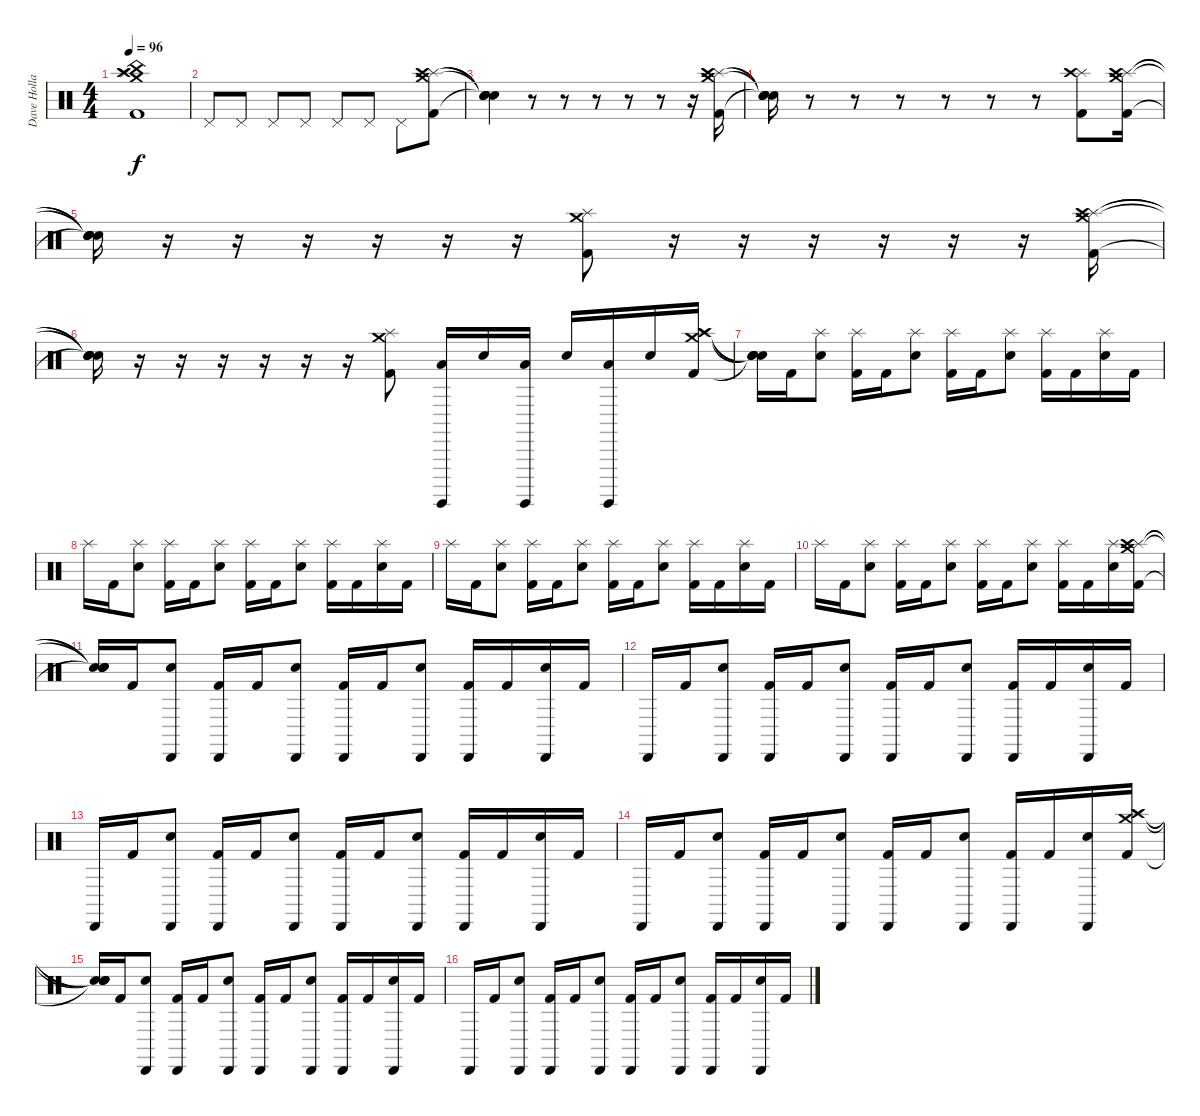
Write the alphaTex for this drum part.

\track ("Dave Holland" "Dave Holla") {instrument percussion}
\staff {score}
\articulation defaults
\ts (4 4)
\tempo 96
\clef neutral
\ks c
("Crash medium (hit)" "Splash (hit)" "Crash high (hit)" "China (hit)" "Kick (hit) 2").1{dy f} |
"Pedal Hi-Hat (hit)".8 "Pedal Hi-Hat (hit)".8 "Pedal Hi-Hat (hit)".8 "Pedal Hi-Hat (hit)".8 "Pedal Hi-Hat (hit)".8 "Pedal Hi-Hat (hit)".8 "Pedal Hi-Hat (hit)".8 ("Crash medium (hit)" "Splash (hit)" "Crash high (hit)" "Kick (hit) 2").8 |
("Snare (hit)"{t} "Snare (hit)"{t} "Snare (hit)"{t} "Snare (hit)"{t}).4 r.8 r.8 r.8 r.8 r.8 r.16 ("Crash medium (hit)" "Splash (hit)" "Crash high (hit)" "Kick (hit) 2").16 |
("Snare (hit)"{t} "Snare (hit)"{t} "Snare (hit)"{t} "Snare (hit)"{t}).16 r.8 r.8 r.8 r.8 r.8 r.8 ("Splash (hit)" "Crash high (hit)" "Kick (hit) 2").8 ("Crash medium (hit)" "Splash (hit)" "Crash high (hit)" "Kick (hit) 2").16 |
("Snare (hit)"{t} "Snare (hit)"{t} "Snare (hit)"{t} "Snare (hit)"{t}).16 r.16 r.16 r.16 r.16 r.16 r.16 ("Crash medium (hit)" "Splash (hit)" "Kick (hit) 2").8 r.16 r.16 r.16 r.16 r.16 r.16 ("Crash medium (hit)" "Splash (hit)" "Crash high (hit)" "Kick (hit) 2").16 |
("Snare (hit)"{t} "Snare (hit)"{t} "Snare (hit)"{t} "Snare (hit)"{t}).16 r.16 r.16 r.16 r.16 r.16 r.16 ("Crash medium (hit)" "Splash (hit)" "Kick (hit) 2").8 ("Surdo (hit)" "Low Floor Tom (hit)").16 "Snare (hit) 2".16 ("Surdo (hit)" "Low Floor Tom (hit)").16 "Snare (hit) 2".16 ("Surdo (hit)" "Low Floor Tom (hit)").16 "Snare (hit) 2".16 ("Crash medium (hit)" "Splash (hit)" "Crash high (hit)" "Kick (hit) 2").16 |
("Snare (hit)"{t} "Snare (hit)"{t} "Snare (hit)"{t} "Snare (hit)"{t}).16 "Kick (hit) 2".16 ("Splash (hit)" "Snare (hit) 2").8 ("Splash (hit)" "Kick (hit) 2").16 "Kick (hit) 2".16 ("Splash (hit)" "Snare (hit) 2").8 ("Splash (hit)" "Kick (hit) 2").16 "Kick (hit) 2".16 ("Splash (hit)" "Snare (hit) 2").8 ("Splash (hit)" "Kick (hit) 2").16 "Kick (hit) 2".16 ("Splash (hit)" "Snare (hit) 2").16 "Kick (hit) 2".16 |
"Splash (hit)".16 "Kick (hit) 2".16 ("Splash (hit)" "Snare (hit) 2").8 ("Splash (hit)" "Kick (hit) 2").16 "Kick (hit) 2".16 ("Splash (hit)" "Snare (hit) 2").8 ("Splash (hit)" "Kick (hit) 2").16 "Kick (hit) 2".16 ("Splash (hit)" "Snare (hit) 2").8 ("Splash (hit)" "Kick (hit) 2").16 "Kick (hit) 2".16 ("Splash (hit)" "Snare (hit) 2").16 "Kick (hit) 2".16 |
"Splash (hit)".16 "Kick (hit) 2".16 ("Splash (hit)" "Snare (hit) 2").8 ("Splash (hit)" "Kick (hit) 2").16 "Kick (hit) 2".16 ("Splash (hit)" "Snare (hit) 2").8 ("Splash (hit)" "Kick (hit) 2").16 "Kick (hit) 2".16 ("Splash (hit)" "Snare (hit) 2").8 ("Splash (hit)" "Kick (hit) 2").16 "Kick (hit) 2".16 ("Splash (hit)" "Snare (hit) 2").16 "Kick (hit) 2".16 |
"Splash (hit)".16 "Kick (hit) 2".16 ("Splash (hit)" "Snare (hit) 2").8 ("Splash (hit)" "Kick (hit) 2").16 "Kick (hit) 2".16 ("Splash (hit)" "Snare (hit) 2").8 ("Splash (hit)" "Kick (hit) 2").16 "Kick (hit) 2".16 ("Splash (hit)" "Snare (hit) 2").8 ("Splash (hit)" "Kick (hit) 2").16 "Kick (hit) 2".16 ("Splash (hit)" "Snare (hit) 2").16 ("Crash medium (hit)" "Splash (hit)" "Crash high (hit)" "Kick (hit) 2").16 |
("Snare (hit)"{t} "Snare (hit)"{t} "Snare (hit)"{t} "Snare (hit)"{t}).16 "Kick (hit) 2".16 ("Cabasa (hit)" "Snare (hit) 2").8 ("Cabasa (hit)" "Kick (hit) 2").16 "Kick (hit) 2".16 ("Cabasa (hit)" "Snare (hit) 2").8 ("Cabasa (hit)" "Kick (hit) 2").16 "Kick (hit) 2".16 ("Cabasa (hit)" "Snare (hit) 2").8 ("Cabasa (hit)" "Kick (hit) 2").16 "Kick (hit) 2".16 ("Cabasa (hit)" "Snare (hit) 2").16 "Kick (hit) 2".16 |
"Cabasa (hit)".16 "Kick (hit) 2".16 ("Cabasa (hit)" "Snare (hit) 2").8 ("Cabasa (hit)" "Kick (hit) 2").16 "Kick (hit) 2".16 ("Cabasa (hit)" "Snare (hit) 2").8 ("Cabasa (hit)" "Kick (hit) 2").16 "Kick (hit) 2".16 ("Cabasa (hit)" "Snare (hit) 2").8 ("Cabasa (hit)" "Kick (hit) 2").16 "Kick (hit) 2".16 ("Cabasa (hit)" "Snare (hit) 2").16 "Kick (hit) 2".16 |
"Cabasa (hit)".16 "Kick (hit) 2".16 ("Cabasa (hit)" "Snare (hit) 2").8 ("Cabasa (hit)" "Kick (hit) 2").16 "Kick (hit) 2".16 ("Cabasa (hit)" "Snare (hit) 2").8 ("Cabasa (hit)" "Kick (hit) 2").16 "Kick (hit) 2".16 ("Cabasa (hit)" "Snare (hit) 2").8 ("Cabasa (hit)" "Kick (hit) 2").16 "Kick (hit) 2".16 ("Cabasa (hit)" "Snare (hit) 2").16 "Kick (hit) 2".16 |
"Cabasa (hit)".16 "Kick (hit) 2".16 ("Cabasa (hit)" "Snare (hit) 2").8 ("Cabasa (hit)" "Kick (hit) 2").16 "Kick (hit) 2".16 ("Cabasa (hit)" "Snare (hit) 2").8 ("Cabasa (hit)" "Kick (hit) 2").16 "Kick (hit) 2".16 ("Cabasa (hit)" "Snare (hit) 2").8 ("Cabasa (hit)" "Kick (hit) 2").16 "Kick (hit) 2".16 ("Cabasa (hit)" "Snare (hit) 2").16 ("Crash medium (hit)" "Splash (hit)" "Crash high (hit)" "Kick (hit) 2").16 |
("Snare (hit)"{t} "Snare (hit)"{t} "Snare (hit)"{t} "Snare (hit)"{t}).16 "Kick (hit) 2".16 ("Cabasa (hit)" "Snare (hit) 2").8 ("Cabasa (hit)" "Kick (hit) 2").16 "Kick (hit) 2".16 ("Cabasa (hit)" "Snare (hit) 2").8 ("Cabasa (hit)" "Kick (hit) 2").16 "Kick (hit) 2".16 ("Cabasa (hit)" "Snare (hit) 2").8 ("Cabasa (hit)" "Kick (hit) 2").16 "Kick (hit) 2".16 ("Cabasa (hit)" "Snare (hit) 2").16 "Kick (hit) 2".16 |
"Cabasa (hit)".16 "Kick (hit) 2".16 ("Cabasa (hit)" "Snare (hit) 2").8 ("Cabasa (hit)" "Kick (hit) 2").16 "Kick (hit) 2".16 ("Cabasa (hit)" "Snare (hit) 2").8 ("Cabasa (hit)" "Kick (hit) 2").16 "Kick (hit) 2".16 ("Cabasa (hit)" "Snare (hit) 2").8 ("Cabasa (hit)" "Kick (hit) 2").16 "Kick (hit) 2".16 ("Cabasa (hit)" "Snare (hit) 2").16 "Kick (hit) 2".16
